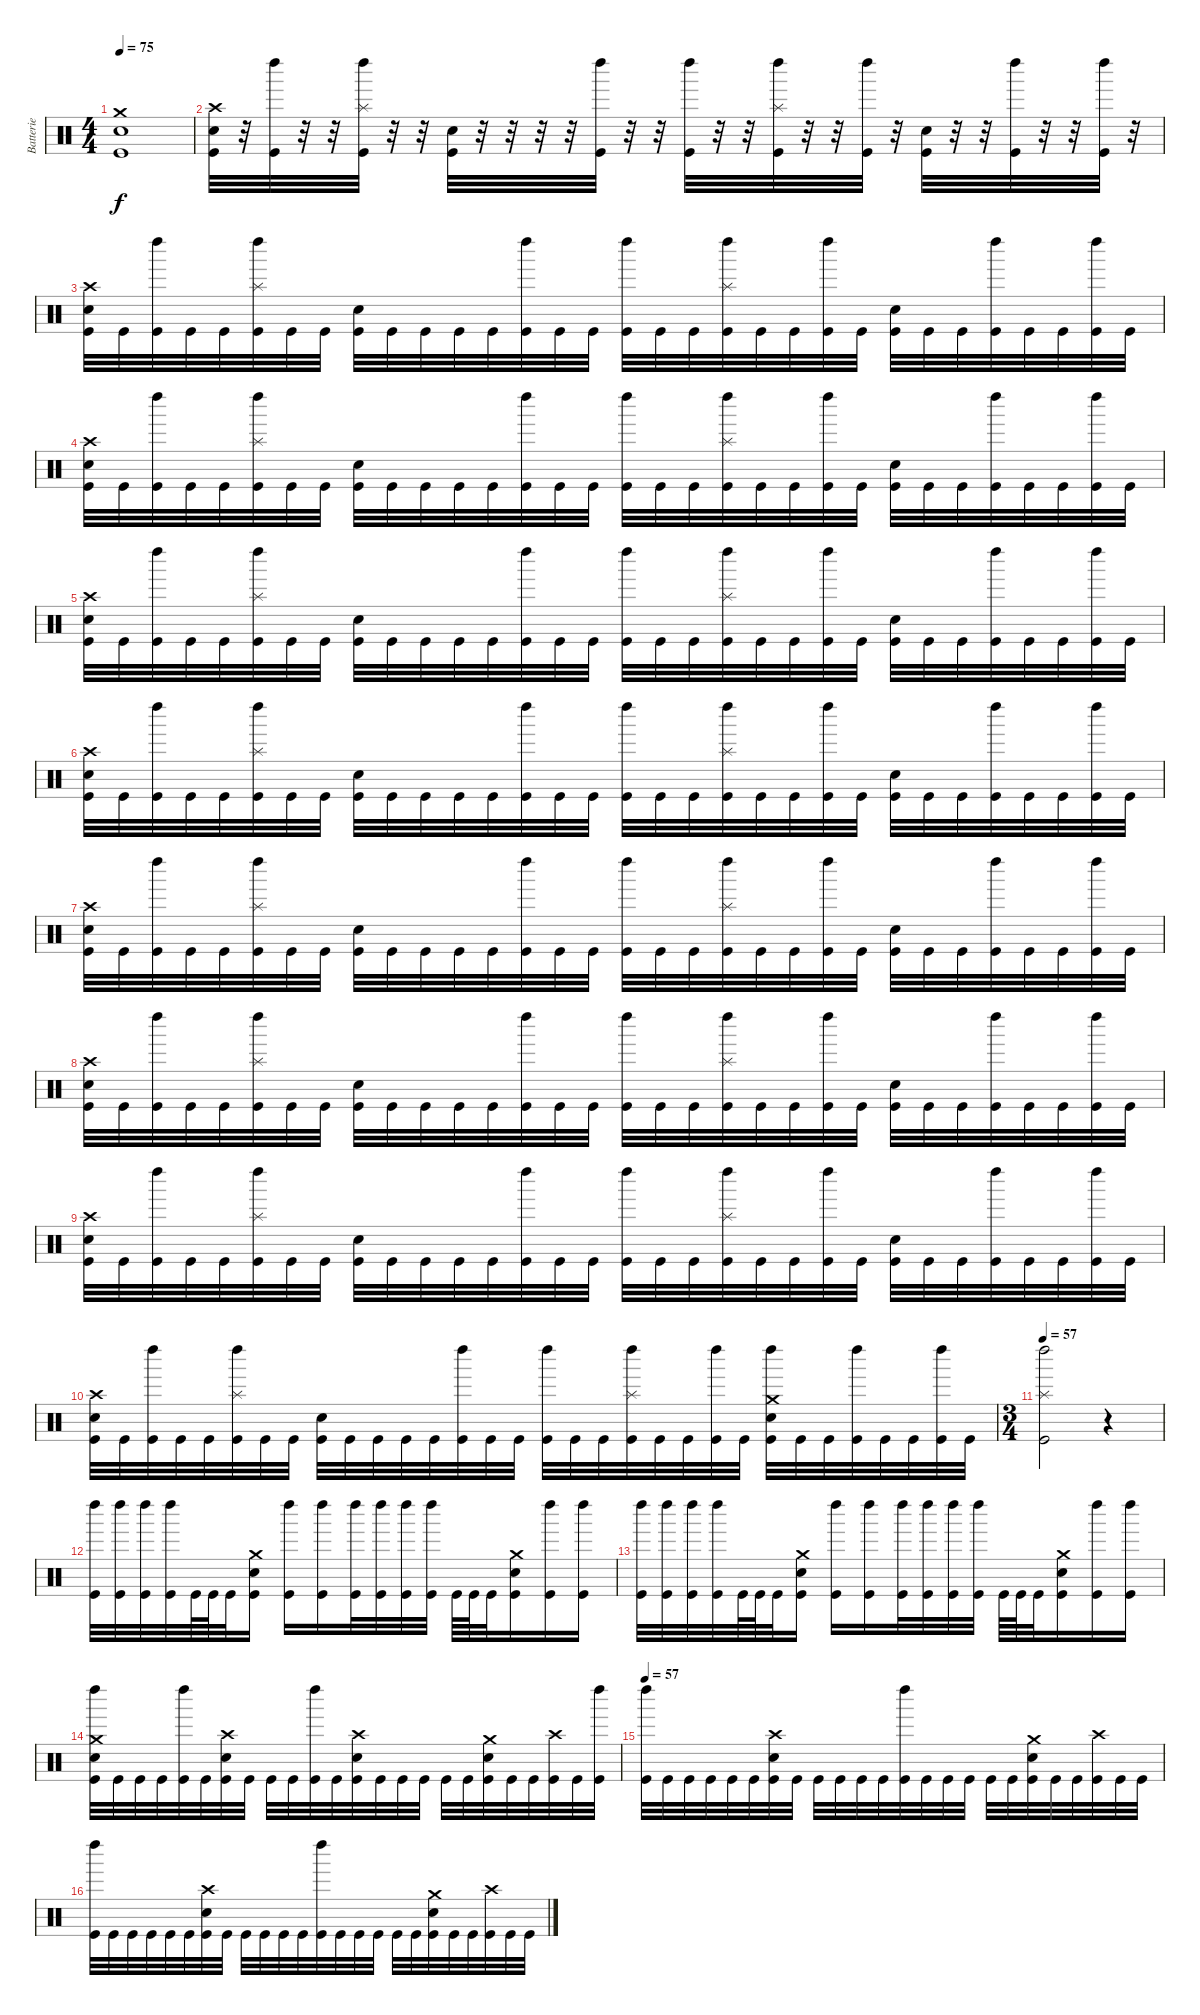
\track ("Batterie" "Batterie") {instrument percussion}
\staff {score}
\articulation defaults
\ts (4 4)
\tempo 75
\clef neutral
\ks c
("Kick (hit)" "Electric Snare (hit)" "Crash medium (hit)").1{dy f} |
("Kick (hit)" "Electric Snare (hit)" "Crash high (hit)").32 r.32 ("Kick (hit)" "Left Maraca (hit)").32 r.32 r.32 ("Kick (hit)" "Left Maraca (hit)" "Splash (hit)").32 r.32 r.32 ("Kick (hit)" "Electric Snare (hit)").32 r.32 r.32 r.32 r.32 ("Kick (hit)" "Left Maraca (hit)").32 r.32 r.32 ("Kick (hit)" "Left Maraca (hit)").32 r.32 r.32 ("Kick (hit)" "Left Maraca (hit)" "Splash (hit)").32 r.32 r.32 ("Kick (hit)" "Left Maraca (hit)").32 r.32 ("Kick (hit)" "Electric Snare (hit)").32 r.32 r.32 ("Kick (hit)" "Left Maraca (hit)").32 r.32 r.32 ("Kick (hit)" "Left Maraca (hit)").32 r.32 |
("Kick (hit)" "Electric Snare (hit)" "Crash high (hit)").32 "Kick (hit)".32 ("Kick (hit)" "Left Maraca (hit)").32 "Kick (hit)".32 "Kick (hit)".32 ("Kick (hit)" "Left Maraca (hit)" "Splash (hit)").32 "Kick (hit)".32 "Kick (hit)".32 ("Kick (hit)" "Electric Snare (hit)").32 "Kick (hit)".32 "Kick (hit)".32 "Kick (hit)".32 "Kick (hit)".32 ("Kick (hit)" "Left Maraca (hit)").32 "Kick (hit)".32 "Kick (hit)".32 ("Kick (hit)" "Left Maraca (hit)").32 "Kick (hit)".32 "Kick (hit)".32 ("Kick (hit)" "Left Maraca (hit)" "Splash (hit)").32 "Kick (hit)".32 "Kick (hit)".32 ("Kick (hit)" "Left Maraca (hit)").32 "Kick (hit)".32 ("Kick (hit)" "Electric Snare (hit)").32 "Kick (hit)".32 "Kick (hit)".32 ("Kick (hit)" "Left Maraca (hit)").32 "Kick (hit)".32 "Kick (hit)".32 ("Kick (hit)" "Left Maraca (hit)").32 "Kick (hit)".32 |
("Kick (hit)" "Electric Snare (hit)" "Crash high (hit)").32 "Kick (hit)".32 ("Kick (hit)" "Left Maraca (hit)").32 "Kick (hit)".32 "Kick (hit)".32 ("Kick (hit)" "Left Maraca (hit)" "Splash (hit)").32 "Kick (hit)".32 "Kick (hit)".32 ("Kick (hit)" "Electric Snare (hit)").32 "Kick (hit)".32 "Kick (hit)".32 "Kick (hit)".32 "Kick (hit)".32 ("Kick (hit)" "Left Maraca (hit)").32 "Kick (hit)".32 "Kick (hit)".32 ("Kick (hit)" "Left Maraca (hit)").32 "Kick (hit)".32 "Kick (hit)".32 ("Kick (hit)" "Left Maraca (hit)" "Splash (hit)").32 "Kick (hit)".32 "Kick (hit)".32 ("Kick (hit)" "Left Maraca (hit)").32 "Kick (hit)".32 ("Kick (hit)" "Electric Snare (hit)").32 "Kick (hit)".32 "Kick (hit)".32 ("Kick (hit)" "Left Maraca (hit)").32 "Kick (hit)".32 "Kick (hit)".32 ("Kick (hit)" "Left Maraca (hit)").32 "Kick (hit)".32 |
("Kick (hit)" "Electric Snare (hit)" "Crash high (hit)").32 "Kick (hit)".32 ("Kick (hit)" "Left Maraca (hit)").32 "Kick (hit)".32 "Kick (hit)".32 ("Kick (hit)" "Left Maraca (hit)" "Splash (hit)").32 "Kick (hit)".32 "Kick (hit)".32 ("Kick (hit)" "Electric Snare (hit)").32 "Kick (hit)".32 "Kick (hit)".32 "Kick (hit)".32 "Kick (hit)".32 ("Kick (hit)" "Left Maraca (hit)").32 "Kick (hit)".32 "Kick (hit)".32 ("Kick (hit)" "Left Maraca (hit)").32 "Kick (hit)".32 "Kick (hit)".32 ("Kick (hit)" "Left Maraca (hit)" "Splash (hit)").32 "Kick (hit)".32 "Kick (hit)".32 ("Kick (hit)" "Left Maraca (hit)").32 "Kick (hit)".32 ("Kick (hit)" "Electric Snare (hit)").32 "Kick (hit)".32 "Kick (hit)".32 ("Kick (hit)" "Left Maraca (hit)").32 "Kick (hit)".32 "Kick (hit)".32 ("Kick (hit)" "Left Maraca (hit)").32 "Kick (hit)".32 |
("Kick (hit)" "Electric Snare (hit)" "Crash high (hit)").32 "Kick (hit)".32 ("Kick (hit)" "Left Maraca (hit)").32 "Kick (hit)".32 "Kick (hit)".32 ("Kick (hit)" "Left Maraca (hit)" "Splash (hit)").32 "Kick (hit)".32 "Kick (hit)".32 ("Kick (hit)" "Electric Snare (hit)").32 "Kick (hit)".32 "Kick (hit)".32 "Kick (hit)".32 "Kick (hit)".32 ("Kick (hit)" "Left Maraca (hit)").32 "Kick (hit)".32 "Kick (hit)".32 ("Kick (hit)" "Left Maraca (hit)").32 "Kick (hit)".32 "Kick (hit)".32 ("Kick (hit)" "Left Maraca (hit)" "Splash (hit)").32 "Kick (hit)".32 "Kick (hit)".32 ("Kick (hit)" "Left Maraca (hit)").32 "Kick (hit)".32 ("Kick (hit)" "Electric Snare (hit)").32 "Kick (hit)".32 "Kick (hit)".32 ("Kick (hit)" "Left Maraca (hit)").32 "Kick (hit)".32 "Kick (hit)".32 ("Kick (hit)" "Left Maraca (hit)").32 "Kick (hit)".32 |
("Kick (hit)" "Electric Snare (hit)" "Crash high (hit)").32 "Kick (hit)".32 ("Kick (hit)" "Left Maraca (hit)").32 "Kick (hit)".32 "Kick (hit)".32 ("Kick (hit)" "Left Maraca (hit)" "Splash (hit)").32 "Kick (hit)".32 "Kick (hit)".32 ("Kick (hit)" "Electric Snare (hit)").32 "Kick (hit)".32 "Kick (hit)".32 "Kick (hit)".32 "Kick (hit)".32 ("Kick (hit)" "Left Maraca (hit)").32 "Kick (hit)".32 "Kick (hit)".32 ("Kick (hit)" "Left Maraca (hit)").32 "Kick (hit)".32 "Kick (hit)".32 ("Kick (hit)" "Left Maraca (hit)" "Splash (hit)").32 "Kick (hit)".32 "Kick (hit)".32 ("Kick (hit)" "Left Maraca (hit)").32 "Kick (hit)".32 ("Kick (hit)" "Electric Snare (hit)").32 "Kick (hit)".32 "Kick (hit)".32 ("Kick (hit)" "Left Maraca (hit)").32 "Kick (hit)".32 "Kick (hit)".32 ("Kick (hit)" "Left Maraca (hit)").32 "Kick (hit)".32 |
("Kick (hit)" "Electric Snare (hit)" "Crash high (hit)").32 "Kick (hit)".32 ("Kick (hit)" "Left Maraca (hit)").32 "Kick (hit)".32 "Kick (hit)".32 ("Kick (hit)" "Left Maraca (hit)" "Splash (hit)").32 "Kick (hit)".32 "Kick (hit)".32 ("Kick (hit)" "Electric Snare (hit)").32 "Kick (hit)".32 "Kick (hit)".32 "Kick (hit)".32 "Kick (hit)".32 ("Kick (hit)" "Left Maraca (hit)").32 "Kick (hit)".32 "Kick (hit)".32 ("Kick (hit)" "Left Maraca (hit)").32 "Kick (hit)".32 "Kick (hit)".32 ("Kick (hit)" "Left Maraca (hit)" "Splash (hit)").32 "Kick (hit)".32 "Kick (hit)".32 ("Kick (hit)" "Left Maraca (hit)").32 "Kick (hit)".32 ("Kick (hit)" "Electric Snare (hit)").32 "Kick (hit)".32 "Kick (hit)".32 ("Kick (hit)" "Left Maraca (hit)").32 "Kick (hit)".32 "Kick (hit)".32 ("Kick (hit)" "Left Maraca (hit)").32 "Kick (hit)".32 |
("Kick (hit)" "Electric Snare (hit)" "Crash high (hit)").32 "Kick (hit)".32 ("Kick (hit)" "Left Maraca (hit)").32 "Kick (hit)".32 "Kick (hit)".32 ("Kick (hit)" "Left Maraca (hit)" "Splash (hit)").32 "Kick (hit)".32 "Kick (hit)".32 ("Kick (hit)" "Electric Snare (hit)").32 "Kick (hit)".32 "Kick (hit)".32 "Kick (hit)".32 "Kick (hit)".32 ("Kick (hit)" "Left Maraca (hit)").32 "Kick (hit)".32 "Kick (hit)".32 ("Kick (hit)" "Left Maraca (hit)").32 "Kick (hit)".32 "Kick (hit)".32 ("Kick (hit)" "Left Maraca (hit)" "Splash (hit)").32 "Kick (hit)".32 "Kick (hit)".32 ("Kick (hit)" "Left Maraca (hit)").32 "Kick (hit)".32 ("Kick (hit)" "Electric Snare (hit)").32 "Kick (hit)".32 "Kick (hit)".32 ("Kick (hit)" "Left Maraca (hit)").32 "Kick (hit)".32 "Kick (hit)".32 ("Kick (hit)" "Left Maraca (hit)").32 "Kick (hit)".32 |
("Kick (hit)" "Electric Snare (hit)" "Crash high (hit)").32 "Kick (hit)".32 ("Kick (hit)" "Left Maraca (hit)").32 "Kick (hit)".32 "Kick (hit)".32 ("Kick (hit)" "Left Maraca (hit)" "Splash (hit)").32 "Kick (hit)".32 "Kick (hit)".32 ("Kick (hit)" "Electric Snare (hit)").32 "Kick (hit)".32 "Kick (hit)".32 "Kick (hit)".32 "Kick (hit)".32 ("Kick (hit)" "Left Maraca (hit)").32 "Kick (hit)".32 "Kick (hit)".32 ("Kick (hit)" "Left Maraca (hit)").32 "Kick (hit)".32 "Kick (hit)".32 ("Kick (hit)" "Left Maraca (hit)" "Splash (hit)").32 "Kick (hit)".32 "Kick (hit)".32 ("Kick (hit)" "Left Maraca (hit)").32 "Kick (hit)".32 ("Kick (hit)" "Left Maraca (hit)" "Electric Snare (hit)" "Crash medium (hit)").32 "Kick (hit)".32 "Kick (hit)".32 ("Kick (hit)" "Left Maraca (hit)").32 "Kick (hit)".32 "Kick (hit)".32 ("Kick (hit)" "Left Maraca (hit)").32 "Kick (hit)".32 |
\ts (3 4)
\tempo 57
("Kick (hit)" "Left Maraca (hit)" "Splash (hit)").2 r.4 |
("Kick (hit)" "Left Maraca (hit)").32 ("Kick (hit)" "Left Maraca (hit)").32 ("Kick (hit)" "Left Maraca (hit)").32 ("Kick (hit)" "Left Maraca (hit)").32 "Kick (hit)".64 "Kick (hit)".64 "Kick (hit)".32 ("Kick (hit)" "Electric Snare (hit)" "Crash medium (hit)").16 ("Kick (hit)" "Left Maraca (hit)").16 ("Kick (hit)" "Left Maraca (hit)").16 ("Kick (hit)" "Left Maraca (hit)").32 ("Kick (hit)" "Left Maraca (hit)").32 ("Kick (hit)" "Left Maraca (hit)").32 ("Kick (hit)" "Left Maraca (hit)").32 "Kick (hit)".64 "Kick (hit)".64 "Kick (hit)".32 ("Kick (hit)" "Electric Snare (hit)" "Crash medium (hit)").16 ("Kick (hit)" "Left Maraca (hit)").16 ("Kick (hit)" "Left Maraca (hit)").16 |
("Kick (hit)" "Left Maraca (hit)").32 ("Kick (hit)" "Left Maraca (hit)").32 ("Kick (hit)" "Left Maraca (hit)").32 ("Kick (hit)" "Left Maraca (hit)").32 "Kick (hit)".64 "Kick (hit)".64 "Kick (hit)".32 ("Kick (hit)" "Electric Snare (hit)" "Crash medium (hit)").16 ("Kick (hit)" "Left Maraca (hit)").16 ("Kick (hit)" "Left Maraca (hit)").16 ("Kick (hit)" "Left Maraca (hit)").32 ("Kick (hit)" "Left Maraca (hit)").32 ("Kick (hit)" "Left Maraca (hit)").32 ("Kick (hit)" "Left Maraca (hit)").32 "Kick (hit)".64 "Kick (hit)".64 "Kick (hit)".32 ("Kick (hit)" "Electric Snare (hit)" "Crash medium (hit)").16 ("Kick (hit)" "Left Maraca (hit)").16 ("Kick (hit)" "Left Maraca (hit)").16 |
("Kick (hit)" "Left Maraca (hit)" "Electric Snare (hit)" "Crash medium (hit)").32 "Kick (hit)".32 "Kick (hit)".32 "Kick (hit)".32 ("Kick (hit)" "Left Maraca (hit)").32 "Kick (hit)".32 ("Kick (hit)" "Electric Snare (hit)" "Crash high (hit)").32 "Kick (hit)".32 "Kick (hit)".32 "Kick (hit)".32 ("Kick (hit)" "Left Maraca (hit)").32 "Kick (hit)".32 ("Kick (hit)" "Electric Snare (hit)" "Crash high (hit)").32 "Kick (hit)".32 "Kick (hit)".32 "Kick (hit)".32 "Kick (hit)".32 "Kick (hit)".32 ("Kick (hit)" "Electric Snare (hit)" "Crash medium (hit)").32 "Kick (hit)".32 "Kick (hit)".32 ("Kick (hit)" "Crash high (hit)").32 "Kick (hit)".32 ("Kick (hit)" "Left Maraca (hit)").32 |
\tempo 57
("Kick (hit)" "Left Maraca (hit)").32 "Kick (hit)".32 "Kick (hit)".32 "Kick (hit)".32 "Kick (hit)".32 "Kick (hit)".32 ("Kick (hit)" "Electric Snare (hit)" "Crash high (hit)").32 "Kick (hit)".32 "Kick (hit)".32 "Kick (hit)".32 "Kick (hit)".32 "Kick (hit)".32 ("Kick (hit)" "Left Maraca (hit)").32 "Kick (hit)".32 "Kick (hit)".32 "Kick (hit)".32 "Kick (hit)".32 "Kick (hit)".32 ("Kick (hit)" "Electric Snare (hit)" "Crash medium (hit)").32 "Kick (hit)".32 "Kick (hit)".32 ("Kick (hit)" "Crash high (hit)").32 "Kick (hit)".32 "Kick (hit)".32 |
("Kick (hit)" "Left Maraca (hit)").32 "Kick (hit)".32 "Kick (hit)".32 "Kick (hit)".32 "Kick (hit)".32 "Kick (hit)".32 ("Kick (hit)" "Electric Snare (hit)" "Crash high (hit)").32 "Kick (hit)".32 "Kick (hit)".32 "Kick (hit)".32 "Kick (hit)".32 "Kick (hit)".32 ("Kick (hit)" "Left Maraca (hit)").32 "Kick (hit)".32 "Kick (hit)".32 "Kick (hit)".32 "Kick (hit)".32 "Kick (hit)".32 ("Kick (hit)" "Electric Snare (hit)" "Crash medium (hit)").32 "Kick (hit)".32 "Kick (hit)".32 ("Kick (hit)" "Crash high (hit)").32 "Kick (hit)".32 "Kick (hit)".32
